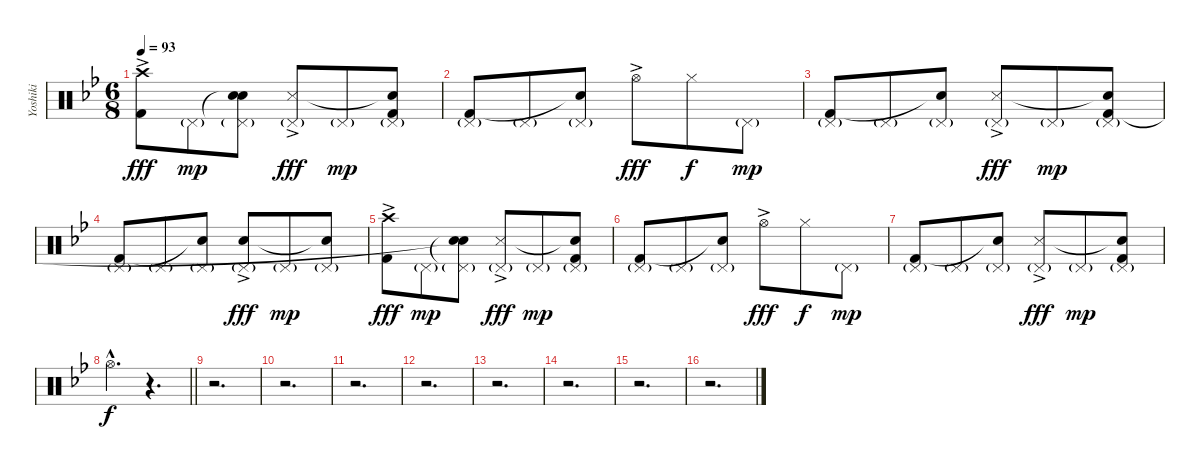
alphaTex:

\track ("Yoshiki" "Yoshiki") {instrument percussion}
\staff {score}
\articulation defaults
\ts (6 8)
\tempo 93
\clef neutral
\ks bb
("Crash high (hit)"{ac} "Kick (hit) 2"{ac}).8{dy fff} "Pedal Hi-Hat (hit)"{g}.8{dy mp} ("Snare (hit)"{t} "Pedal Hi-Hat (hit)"{g} "Snare (hit)"{t}).8 ("Pedal Hi-Hat (hit)"{g} "Snare (side stick) 3"{ac}).8{dy fff} "Pedal Hi-Hat (hit)"{g}.8{dy mp} ("Pedal Hi-Hat (hit)"{g} "Snare (hit)"{t} "Kick (hit) 2").8 |
("Pedal Hi-Hat (hit)"{g} "Kick (hit) 2").8 "Pedal Hi-Hat (hit)"{g}.8 ("Pedal Hi-Hat (hit)"{g} "Snare (hit)"{t}).8 "Hi-Hat (open)"{ac}.8{dy fff} "Hi-Hat (closed)".8{dy f} "Pedal Hi-Hat (hit)"{g}.8{dy mp} |
("Pedal Hi-Hat (hit)"{g} "Kick (hit) 2").8 "Pedal Hi-Hat (hit)"{g}.8 ("Pedal Hi-Hat (hit)"{g} "Snare (hit)"{t}).8 ("Pedal Hi-Hat (hit)"{g} "Snare (side stick) 3"{ac}).8{dy fff} "Pedal Hi-Hat (hit)"{g}.8{dy mp} ("Pedal Hi-Hat (hit)"{g} "Snare (hit)"{t} "Kick (hit) 2").8 |
("Pedal Hi-Hat (hit)"{g} "Kick (hit) 2").8 "Pedal Hi-Hat (hit)"{g}.8 ("Pedal Hi-Hat (hit)"{g} "Snare (hit)"{t}).8 ("Pedal Hi-Hat (hit)"{g} "Snare (hit) 2"{ac}).8{dy fff} "Pedal Hi-Hat (hit)"{g}.8{dy mp} ("Pedal Hi-Hat (hit)"{g} "Snare (hit)"{t}).8 |
("Crash high (hit)"{ac} "Kick (hit) 2"{ac}).8{dy fff} "Pedal Hi-Hat (hit)"{g}.8{dy mp} ("Snare (hit)"{t} "Pedal Hi-Hat (hit)"{g} "Snare (hit)"{t}).8 ("Pedal Hi-Hat (hit)"{g} "Snare (side stick) 3"{ac}).8{dy fff} "Pedal Hi-Hat (hit)"{g}.8{dy mp} ("Pedal Hi-Hat (hit)"{g} "Snare (hit)"{t} "Kick (hit) 2").8 |
("Pedal Hi-Hat (hit)"{g} "Kick (hit) 2").8 "Pedal Hi-Hat (hit)"{g}.8 ("Pedal Hi-Hat (hit)"{g} "Snare (hit)"{t}).8 "Hi-Hat (open)"{ac}.8{dy fff} "Hi-Hat (closed)".8{dy f} "Pedal Hi-Hat (hit)"{g}.8{dy mp} |
("Pedal Hi-Hat (hit)"{g} "Kick (hit) 2").8 "Pedal Hi-Hat (hit)"{g}.8 ("Pedal Hi-Hat (hit)"{g} "Snare (hit)"{t}).8 ("Pedal Hi-Hat (hit)"{g} "Snare (side stick) 3"{ac}).8{dy fff} "Pedal Hi-Hat (hit)"{g}.8{dy mp} ("Pedal Hi-Hat (hit)"{g} "Snare (hit)"{t} "Kick (hit) 2").8 |
\barLineRight lightlight "Hi-Hat (open)"{hac}.4{d dy f}
r.4{d} |
r.2{d} |
r.2{d} |
r.2{d} |
r.2{d} |
r.2{d} |
r.2{d} |
r.2{d} |
r.2{d}
